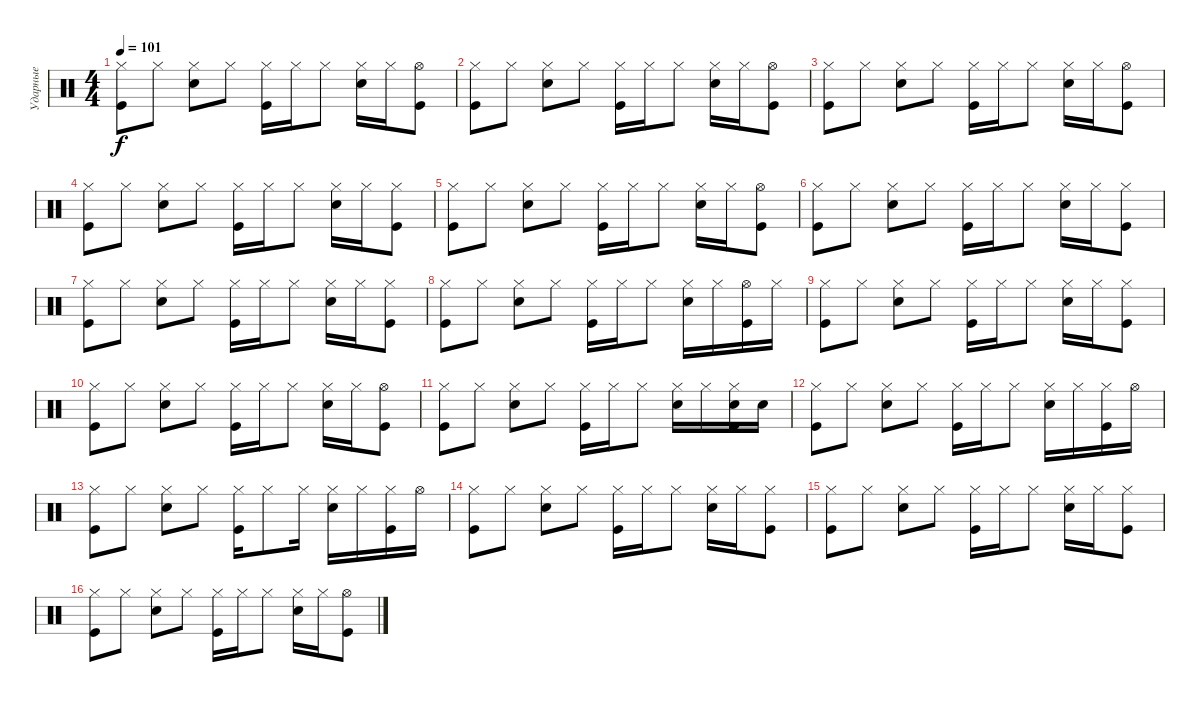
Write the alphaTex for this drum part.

\track ("Ударные" "Ударные") {instrument percussion}
\staff {score}
\articulation defaults
\ts (4 4)
\tempo 101
\clef neutral
\ks c
("Hi-Hat (closed)" "Kick (hit)").8{dy f} "Hi-Hat (closed)".8 ("Hi-Hat (closed)" "Snare (hit) 2").8 "Hi-Hat (closed)".8 ("Hi-Hat (closed)" "Kick (hit)").16 "Hi-Hat (closed)".16 "Hi-Hat (closed)".8 ("Snare (hit) 2" "Hi-Hat (closed)").16 "Hi-Hat (closed)".16 ("Hi-Hat (open)" "Kick (hit)").8 |
("Hi-Hat (closed)" "Kick (hit)").8 "Hi-Hat (closed)".8 ("Hi-Hat (closed)" "Snare (hit) 2").8 "Hi-Hat (closed)".8 ("Hi-Hat (closed)" "Kick (hit)").16 "Hi-Hat (closed)".16 "Hi-Hat (closed)".8 ("Snare (hit) 2" "Hi-Hat (closed)").16 "Hi-Hat (closed)".16 ("Hi-Hat (open)" "Kick (hit)").8 |
("Hi-Hat (closed)" "Kick (hit)").8 "Hi-Hat (closed)".8 ("Hi-Hat (closed)" "Snare (hit) 2").8 "Hi-Hat (closed)".8 ("Hi-Hat (closed)" "Kick (hit)").16 "Hi-Hat (closed)".16 "Hi-Hat (closed)".8 ("Snare (hit) 2" "Hi-Hat (closed)").16 "Hi-Hat (closed)".16 ("Hi-Hat (open)" "Kick (hit)").8 |
("Hi-Hat (closed)" "Kick (hit)").8 "Hi-Hat (closed)".8 ("Hi-Hat (closed)" "Snare (hit) 2").8 "Hi-Hat (closed)".8 ("Hi-Hat (closed)" "Kick (hit)").16 "Hi-Hat (closed)".16 "Hi-Hat (closed)".8 ("Snare (hit) 2" "Hi-Hat (closed)").16 "Hi-Hat (closed)".16 ("Hi-Hat (closed)" "Kick (hit)").8 |
("Hi-Hat (closed)" "Kick (hit)").8 "Hi-Hat (closed)".8 ("Hi-Hat (closed)" "Snare (hit) 2").8 "Hi-Hat (closed)".8 ("Hi-Hat (closed)" "Kick (hit)").16 "Hi-Hat (closed)".16 "Hi-Hat (closed)".8 ("Snare (hit) 2" "Hi-Hat (closed)").16 "Hi-Hat (closed)".16 ("Hi-Hat (open)" "Kick (hit)").8 |
("Hi-Hat (closed)" "Kick (hit)").8 "Hi-Hat (closed)".8 ("Hi-Hat (closed)" "Snare (hit) 2").8 "Hi-Hat (closed)".8 ("Hi-Hat (closed)" "Kick (hit)").16 "Hi-Hat (closed)".16 "Hi-Hat (closed)".8 ("Snare (hit) 2" "Hi-Hat (closed)").16 "Hi-Hat (closed)".16 ("Hi-Hat (closed)" "Kick (hit)").8 |
("Hi-Hat (closed)" "Kick (hit)").8 "Hi-Hat (closed)".8 ("Hi-Hat (closed)" "Snare (hit) 2").8 "Hi-Hat (closed)".8 ("Hi-Hat (closed)" "Kick (hit)").16 "Hi-Hat (closed)".16 "Hi-Hat (closed)".8 ("Snare (hit) 2" "Hi-Hat (closed)").16 "Hi-Hat (closed)".16 ("Hi-Hat (closed)" "Kick (hit)").8 |
("Hi-Hat (closed)" "Kick (hit)").8 "Hi-Hat (closed)".8 ("Hi-Hat (closed)" "Snare (hit) 2").8 "Hi-Hat (closed)".8 ("Hi-Hat (closed)" "Kick (hit)").16 "Hi-Hat (closed)".16 "Hi-Hat (closed)".8 ("Snare (hit) 2" "Hi-Hat (closed)").16 "Hi-Hat (closed)".16 ("Hi-Hat (open)" "Kick (hit)").16 "Hi-Hat (closed)".16 |
("Hi-Hat (closed)" "Kick (hit)").8 "Hi-Hat (closed)".8 ("Hi-Hat (closed)" "Snare (hit) 2").8 "Hi-Hat (closed)".8 ("Hi-Hat (closed)" "Kick (hit)").16 "Hi-Hat (closed)".16 "Hi-Hat (closed)".8 ("Snare (hit) 2" "Hi-Hat (closed)").16 "Hi-Hat (closed)".16 ("Hi-Hat (closed)" "Kick (hit)").8 |
("Hi-Hat (closed)" "Kick (hit)").8 "Hi-Hat (closed)".8 ("Hi-Hat (closed)" "Snare (hit) 2").8 "Hi-Hat (closed)".8 ("Hi-Hat (closed)" "Kick (hit)").16 "Hi-Hat (closed)".16 "Hi-Hat (closed)".8 ("Snare (hit) 2" "Hi-Hat (closed)").16 "Hi-Hat (closed)".16 ("Hi-Hat (open)" "Kick (hit)").8 |
("Hi-Hat (closed)" "Kick (hit)").8 "Hi-Hat (closed)".8 ("Hi-Hat (closed)" "Snare (hit) 2").8 "Hi-Hat (closed)".8 ("Hi-Hat (closed)" "Kick (hit)").16 "Hi-Hat (closed)".16 "Hi-Hat (closed)".8 ("Snare (hit) 2" "Hi-Hat (closed)").16 "Hi-Hat (closed)".16 ("Hi-Hat (closed)" "Snare (hit) 2" "Kick (hit)").16 "Snare (hit) 2".16 |
("Hi-Hat (closed)" "Kick (hit)").8 "Hi-Hat (closed)".8 ("Hi-Hat (closed)" "Snare (hit) 2").8 "Hi-Hat (closed)".8 ("Hi-Hat (closed)" "Kick (hit)").16 "Hi-Hat (closed)".16 "Hi-Hat (closed)".8 ("Snare (hit) 2" "Hi-Hat (closed)").16 "Hi-Hat (closed)".16 ("Hi-Hat (closed)" "Kick (hit)").16 "Hi-Hat (open)".16 |
("Hi-Hat (closed)" "Kick (hit)").8 "Hi-Hat (closed)".8 ("Hi-Hat (closed)" "Snare (hit) 2").8 "Hi-Hat (closed)".8 ("Hi-Hat (closed)" "Kick (hit)").16 "Hi-Hat (closed)".8 "Hi-Hat (closed)".16 ("Snare (hit) 2" "Hi-Hat (closed)").16 "Hi-Hat (closed)".16 ("Hi-Hat (closed)" "Kick (hit)").16 "Hi-Hat (open)".16 |
("Hi-Hat (closed)" "Kick (hit)").8 "Hi-Hat (closed)".8 ("Hi-Hat (closed)" "Snare (hit) 2").8 "Hi-Hat (closed)".8 ("Hi-Hat (closed)" "Kick (hit)").16 "Hi-Hat (closed)".16 "Hi-Hat (closed)".8 ("Snare (hit) 2" "Hi-Hat (closed)").16 "Hi-Hat (closed)".16 ("Hi-Hat (closed)" "Kick (hit)").8 |
("Hi-Hat (closed)" "Kick (hit)").8 "Hi-Hat (closed)".8 ("Hi-Hat (closed)" "Snare (hit) 2").8 "Hi-Hat (closed)".8 ("Hi-Hat (closed)" "Kick (hit)").16 "Hi-Hat (closed)".16 "Hi-Hat (closed)".8 ("Snare (hit) 2" "Hi-Hat (closed)").16 "Hi-Hat (closed)".16 ("Hi-Hat (closed)" "Kick (hit)").8 |
("Hi-Hat (closed)" "Kick (hit)").8 "Hi-Hat (closed)".8 ("Hi-Hat (closed)" "Snare (hit) 2").8 "Hi-Hat (closed)".8 ("Hi-Hat (closed)" "Kick (hit)").16 "Hi-Hat (closed)".16 "Hi-Hat (closed)".8 ("Snare (hit) 2" "Hi-Hat (closed)").16 "Hi-Hat (closed)".16 ("Hi-Hat (open)" "Kick (hit)").8
